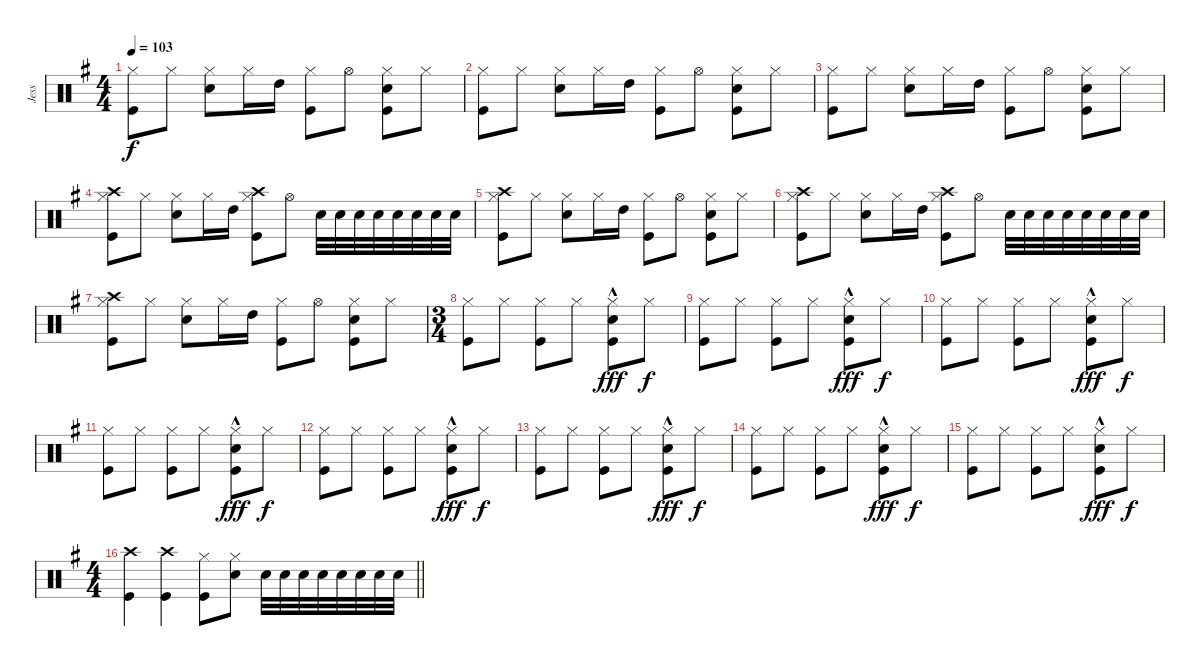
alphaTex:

\track ("Jess" "Jess") {instrument percussion}
\staff {score}
\articulation defaults
\ts (4 4)
\tempo 103
\clef neutral
\ks g
("Hi-Hat (closed)" "Kick (hit)").8{dy f} "Hi-Hat (closed)".8 ("Hi-Hat (closed)" "Snare (hit) 2").8 "Hi-Hat (closed)".16 "High Tom (hit)".16 ("Hi-Hat (closed)" "Kick (hit)").8 "Hi-Hat (open)".8 ("Hi-Hat (closed)" "Snare (hit) 2" "Kick (hit)").8 "Hi-Hat (closed)".8 |
("Hi-Hat (closed)" "Kick (hit)").8 "Hi-Hat (closed)".8 ("Hi-Hat (closed)" "Snare (hit) 2").8 "Hi-Hat (closed)".16 "High Tom (hit)".16 ("Hi-Hat (closed)" "Kick (hit)").8 "Hi-Hat (open)".8 ("Hi-Hat (closed)" "Snare (hit) 2" "Kick (hit)").8 "Hi-Hat (closed)".8 |
("Hi-Hat (closed)" "Kick (hit)").8 "Hi-Hat (closed)".8 ("Hi-Hat (closed)" "Snare (hit) 2").8 "Hi-Hat (closed)".16 "High Tom (hit)".16 ("Hi-Hat (closed)" "Kick (hit)").8 "Hi-Hat (open)".8 ("Hi-Hat (closed)" "Snare (hit) 2" "Kick (hit)").8 "Hi-Hat (closed)".8 |
("Crash high (hit)" "Hi-Hat (closed)" "Kick (hit)").8 "Hi-Hat (closed)".8 ("Hi-Hat (closed)" "Snare (hit) 2").8 "Hi-Hat (closed)".16 "High Tom (hit)".16 ("Crash high (hit)" "Hi-Hat (closed)" "Kick (hit)").8 "Hi-Hat (open)".8 "Snare (hit) 2".32 "Snare (hit) 2".32 "Snare (hit) 2".32 "Snare (hit) 2".32 "Snare (hit) 2".32 "Snare (hit) 2".32 "Snare (hit) 2".32 "Snare (hit) 2".32 |
("Crash high (hit)" "Hi-Hat (closed)" "Kick (hit)").8 "Hi-Hat (closed)".8 ("Hi-Hat (closed)" "Snare (hit) 2").8 "Hi-Hat (closed)".16 "High Tom (hit)".16 ("Hi-Hat (closed)" "Kick (hit)").8 "Hi-Hat (open)".8 ("Hi-Hat (closed)" "Snare (hit) 2" "Kick (hit)").8 "Hi-Hat (closed)".8 |
("Crash high (hit)" "Hi-Hat (closed)" "Kick (hit)").8 "Hi-Hat (closed)".8 ("Hi-Hat (closed)" "Snare (hit) 2").8 "Hi-Hat (closed)".16 "High Tom (hit)".16 ("Crash high (hit)" "Hi-Hat (closed)" "Kick (hit)").8 "Hi-Hat (open)".8 "Snare (hit) 2".32 "Snare (hit) 2".32 "Snare (hit) 2".32 "Snare (hit) 2".32 "Snare (hit) 2".32 "Snare (hit) 2".32 "Snare (hit) 2".32 "Snare (hit) 2".32 |
("Crash high (hit)" "Hi-Hat (closed)" "Kick (hit)").8 "Hi-Hat (closed)".8 ("Hi-Hat (closed)" "Snare (hit) 2").8 "Hi-Hat (closed)".16 "High Tom (hit)".16 ("Hi-Hat (closed)" "Kick (hit)").8 "Hi-Hat (open)".8 ("Hi-Hat (closed)" "Snare (hit) 2" "Kick (hit)").8 "Hi-Hat (closed)".8 |
\ts (3 4)
("Hi-Hat (closed)" "Kick (hit)").8 "Hi-Hat (closed)".8 ("Hi-Hat (closed)" "Kick (hit)").8 "Hi-Hat (closed)".8 ("Hi-Hat (closed)"{hac} "Snare (hit) 2"{hac} "Kick (hit)"{hac}).8{dy fff} "Hi-Hat (closed)".8{dy f} |
("Hi-Hat (closed)" "Kick (hit)").8 "Hi-Hat (closed)".8 ("Hi-Hat (closed)" "Kick (hit)").8 "Hi-Hat (closed)".8 ("Hi-Hat (closed)"{hac} "Snare (hit) 2"{hac} "Kick (hit)"{hac}).8{dy fff} "Hi-Hat (closed)".8{dy f} |
("Hi-Hat (closed)" "Kick (hit)").8 "Hi-Hat (closed)".8 ("Hi-Hat (closed)" "Kick (hit)").8 "Hi-Hat (closed)".8 ("Hi-Hat (closed)"{hac} "Snare (hit) 2"{hac} "Kick (hit)"{hac}).8{dy fff} "Hi-Hat (closed)".8{dy f} |
("Hi-Hat (closed)" "Kick (hit)").8 "Hi-Hat (closed)".8 ("Hi-Hat (closed)" "Kick (hit)").8 "Hi-Hat (closed)".8 ("Hi-Hat (closed)"{hac} "Snare (hit) 2"{hac} "Kick (hit)"{hac}).8{dy fff} "Hi-Hat (closed)".8{dy f} |
("Hi-Hat (closed)" "Kick (hit)").8 "Hi-Hat (closed)".8 ("Hi-Hat (closed)" "Kick (hit)").8 "Hi-Hat (closed)".8 ("Hi-Hat (closed)"{hac} "Snare (hit) 2"{hac} "Kick (hit)"{hac}).8{dy fff} "Hi-Hat (closed)".8{dy f} |
("Hi-Hat (closed)" "Kick (hit)").8 "Hi-Hat (closed)".8 ("Hi-Hat (closed)" "Kick (hit)").8 "Hi-Hat (closed)".8 ("Hi-Hat (closed)"{hac} "Snare (hit) 2"{hac} "Kick (hit)"{hac}).8{dy fff} "Hi-Hat (closed)".8{dy f} |
("Hi-Hat (closed)" "Kick (hit)").8 "Hi-Hat (closed)".8 ("Hi-Hat (closed)" "Kick (hit)").8 "Hi-Hat (closed)".8 ("Hi-Hat (closed)"{hac} "Snare (hit) 2"{hac} "Kick (hit)"{hac}).8{dy fff} "Hi-Hat (closed)".8{dy f} |
("Hi-Hat (closed)" "Kick (hit)").8 "Hi-Hat (closed)".8 ("Hi-Hat (closed)" "Kick (hit)").8 "Hi-Hat (closed)".8 ("Hi-Hat (closed)"{hac} "Snare (hit) 2"{hac} "Kick (hit)"{hac}).8{dy fff} "Hi-Hat (closed)".8{dy f} |
\ts (4 4)
\barLineRight lightlight
("Crash high (hit)" "Kick (hit)").4 ("Crash high (hit)" "Kick (hit)").4 ("Hi-Hat (closed)" "Kick (hit)").8 ("Hi-Hat (closed)" "Snare (hit) 2").8 "Snare (hit) 2".32 "Snare (hit) 2".32 "Snare (hit) 2".32 "Snare (hit) 2".32 "Snare (hit) 2".32 "Snare (hit) 2".32 "Snare (hit) 2".32 "Snare (hit) 2".32
